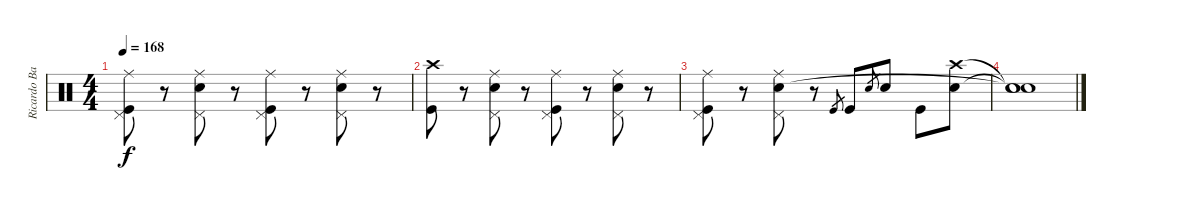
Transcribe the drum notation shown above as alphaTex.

\track ("Ricardo Barrenechea" "Ricardo Ba") {instrument percussion}
\staff {score}
\articulation defaults
\ts (4 4)
\tempo 168
\clef neutral
\ks c
("Ride (middle)" "Pedal Hi-Hat (hit)" "Kick (hit)").8{dy f} r.8 ("Ride (middle)" "Pedal Hi-Hat (hit)" "Snare (hit) 2").8 r.8 ("Ride (middle)" "Pedal Hi-Hat (hit)" "Kick (hit)").8 r.8 ("Ride (middle)" "Pedal Hi-Hat (hit)" "Snare (hit) 2").8 r.8 |
("Crash high (hit)" "Kick (hit)").8 r.8 ("Ride (middle)" "Pedal Hi-Hat (hit)" "Snare (hit) 2").8 r.8 ("Ride (middle)" "Pedal Hi-Hat (hit)" "Kick (hit)").8 r.8 ("Ride (middle)" "Pedal Hi-Hat (hit)" "Snare (hit) 2").8 r.8 |
("Ride (middle)" "Pedal Hi-Hat (hit)" "Kick (hit)").8 r.8 ("Ride (middle)" "Pedal Hi-Hat (hit)" "Snare (hit) 2").8 r.8 "Kick (hit)".8{gr} "Kick (hit)".8 "Snare (hit) 2".8{gr} "Snare (hit) 2".8 "Kick (hit)".8 ("Crash high (hit)" "Snare (hit) 2").8 |
("Snare (hit)"{t} "Snare (hit)"{t} "Snare (hit)"{t}).1
